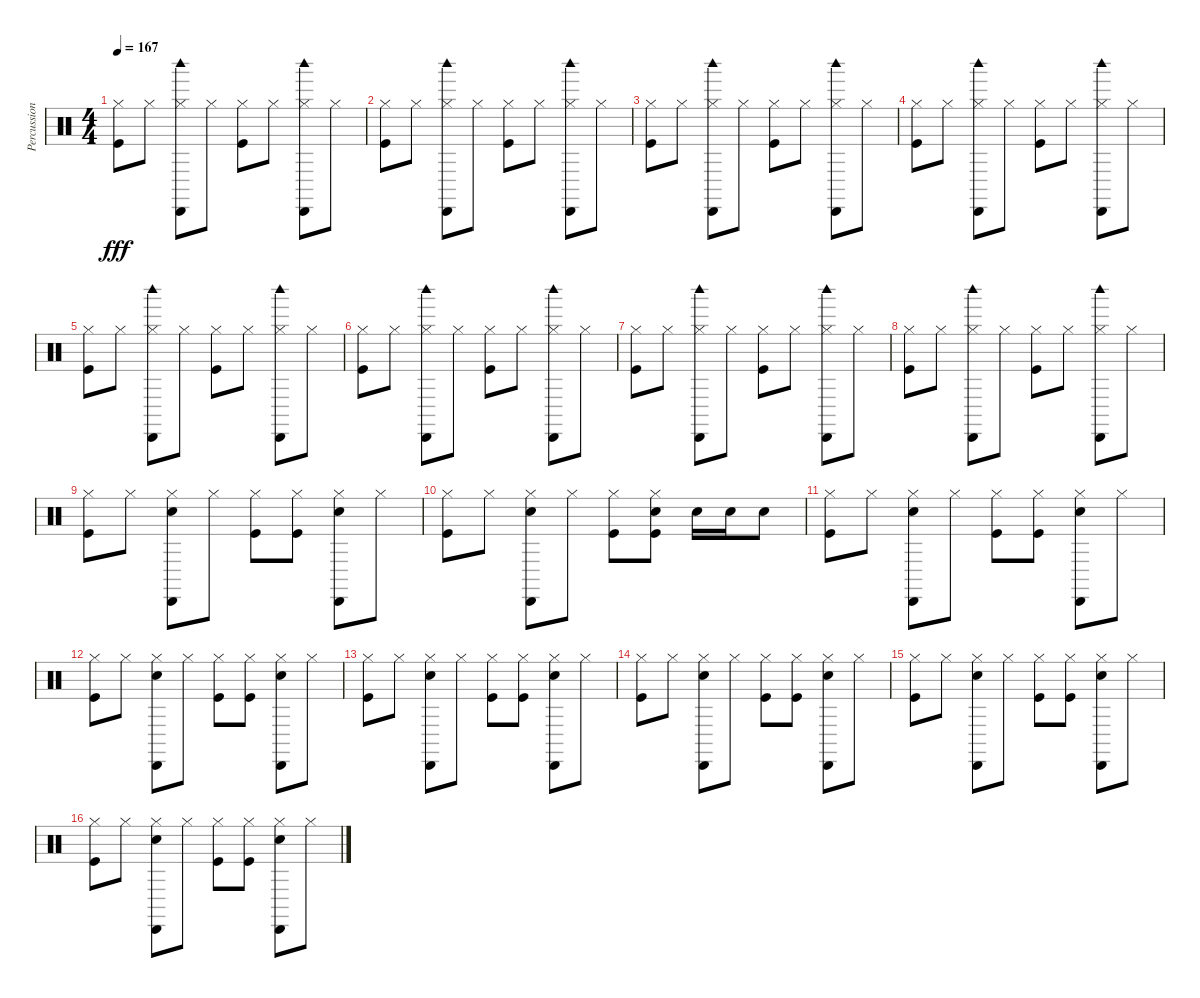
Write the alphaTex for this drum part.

\track ("Percussion" "Percussion") {instrument percussion}
\staff {score}
\articulation defaults
\ts (4 4)
\tempo 167
\clef neutral
\ks c
("Hi-Hat (closed)" "Kick (hit)").8{dy fff} "Hi-Hat (closed)".8 ("Hi-Hat (closed)" "Cabasa (hit)" "Woodblock high (hit)").8 "Hi-Hat (closed)".8 ("Hi-Hat (closed)" "Kick (hit)").8 "Hi-Hat (closed)".8 ("Hi-Hat (closed)" "Cabasa (hit)" "Woodblock high (hit)").8 "Hi-Hat (closed)".8 |
("Hi-Hat (closed)" "Kick (hit)").8 "Hi-Hat (closed)".8 ("Hi-Hat (closed)" "Cabasa (hit)" "Woodblock high (hit)").8 "Hi-Hat (closed)".8 ("Hi-Hat (closed)" "Kick (hit)").8 "Hi-Hat (closed)".8 ("Hi-Hat (closed)" "Cabasa (hit)" "Woodblock high (hit)").8 "Hi-Hat (closed)".8 |
("Hi-Hat (closed)" "Kick (hit)").8 "Hi-Hat (closed)".8 ("Hi-Hat (closed)" "Cabasa (hit)" "Woodblock high (hit)").8 "Hi-Hat (closed)".8 ("Hi-Hat (closed)" "Kick (hit)").8 "Hi-Hat (closed)".8 ("Hi-Hat (closed)" "Cabasa (hit)" "Woodblock high (hit)").8 "Hi-Hat (closed)".8 |
("Hi-Hat (closed)" "Kick (hit)").8 "Hi-Hat (closed)".8 ("Hi-Hat (closed)" "Cabasa (hit)" "Woodblock high (hit)").8 "Hi-Hat (closed)".8 ("Hi-Hat (closed)" "Kick (hit)").8 "Hi-Hat (closed)".8 ("Hi-Hat (closed)" "Cabasa (hit)" "Woodblock high (hit)").8 "Hi-Hat (closed)".8 |
("Hi-Hat (closed)" "Kick (hit)").8 "Hi-Hat (closed)".8 ("Hi-Hat (closed)" "Cabasa (hit)" "Woodblock high (hit)").8 "Hi-Hat (closed)".8 ("Hi-Hat (closed)" "Kick (hit)").8 "Hi-Hat (closed)".8 ("Hi-Hat (closed)" "Cabasa (hit)" "Woodblock high (hit)").8 "Hi-Hat (closed)".8 |
("Hi-Hat (closed)" "Kick (hit)").8 "Hi-Hat (closed)".8 ("Hi-Hat (closed)" "Cabasa (hit)" "Woodblock high (hit)").8 "Hi-Hat (closed)".8 ("Hi-Hat (closed)" "Kick (hit)").8 "Hi-Hat (closed)".8 ("Hi-Hat (closed)" "Cabasa (hit)" "Woodblock high (hit)").8 "Hi-Hat (closed)".8 |
("Hi-Hat (closed)" "Kick (hit)").8 "Hi-Hat (closed)".8 ("Hi-Hat (closed)" "Cabasa (hit)" "Woodblock high (hit)").8 "Hi-Hat (closed)".8 ("Hi-Hat (closed)" "Kick (hit)").8 "Hi-Hat (closed)".8 ("Hi-Hat (closed)" "Cabasa (hit)" "Woodblock high (hit)").8 "Hi-Hat (closed)".8 |
("Hi-Hat (closed)" "Kick (hit)").8 "Hi-Hat (closed)".8 ("Hi-Hat (closed)" "Cabasa (hit)" "Woodblock high (hit)").8 "Hi-Hat (closed)".8 ("Hi-Hat (closed)" "Kick (hit)").8 "Hi-Hat (closed)".8 ("Hi-Hat (closed)" "Cabasa (hit)" "Woodblock high (hit)").8 "Hi-Hat (closed)".8 |
("Hi-Hat (closed)" "Kick (hit)").8 "Hi-Hat (closed)".8 ("Hi-Hat (closed)" "Cabasa (hit)" "Snare (hit) 2").8 "Hi-Hat (closed)".8 ("Hi-Hat (closed)" "Kick (hit)").8 ("Hi-Hat (closed)" "Kick (hit)").8 ("Hi-Hat (closed)" "Cabasa (hit)" "Snare (hit) 2").8 "Hi-Hat (closed)".8 |
("Hi-Hat (closed)" "Kick (hit)").8 "Hi-Hat (closed)".8 ("Hi-Hat (closed)" "Cabasa (hit)" "Snare (hit) 2").8 "Hi-Hat (closed)".8 ("Hi-Hat (closed)" "Kick (hit)").8 ("Hi-Hat (closed)" "Snare (hit) 2" "Kick (hit)").8 "Snare (hit) 2".16 "Snare (hit) 2".16 "Snare (hit) 2".8 |
("Hi-Hat (closed)" "Kick (hit)").8 "Hi-Hat (closed)".8 ("Hi-Hat (closed)" "Cabasa (hit)" "Snare (hit) 2").8 "Hi-Hat (closed)".8 ("Hi-Hat (closed)" "Kick (hit)").8 ("Hi-Hat (closed)" "Kick (hit)").8 ("Hi-Hat (closed)" "Cabasa (hit)" "Snare (hit) 2").8 "Hi-Hat (closed)".8 |
("Hi-Hat (closed)" "Kick (hit)").8 "Hi-Hat (closed)".8 ("Hi-Hat (closed)" "Cabasa (hit)" "Snare (hit) 2").8 "Hi-Hat (closed)".8 ("Hi-Hat (closed)" "Kick (hit)").8 ("Hi-Hat (closed)" "Kick (hit)").8 ("Hi-Hat (closed)" "Cabasa (hit)" "Snare (hit) 2").8 "Hi-Hat (closed)".8 |
("Hi-Hat (closed)" "Kick (hit)").8 "Hi-Hat (closed)".8 ("Hi-Hat (closed)" "Cabasa (hit)" "Snare (hit) 2").8 "Hi-Hat (closed)".8 ("Hi-Hat (closed)" "Kick (hit)").8 ("Hi-Hat (closed)" "Kick (hit)").8 ("Hi-Hat (closed)" "Cabasa (hit)" "Snare (hit) 2").8 "Hi-Hat (closed)".8 |
("Hi-Hat (closed)" "Kick (hit)").8 "Hi-Hat (closed)".8 ("Hi-Hat (closed)" "Cabasa (hit)" "Snare (hit) 2").8 "Hi-Hat (closed)".8 ("Hi-Hat (closed)" "Kick (hit)").8 ("Hi-Hat (closed)" "Kick (hit)").8 ("Hi-Hat (closed)" "Cabasa (hit)" "Snare (hit) 2").8 "Hi-Hat (closed)".8 |
("Hi-Hat (closed)" "Kick (hit)").8 "Hi-Hat (closed)".8 ("Hi-Hat (closed)" "Cabasa (hit)" "Snare (hit) 2").8 "Hi-Hat (closed)".8 ("Hi-Hat (closed)" "Kick (hit)").8 ("Hi-Hat (closed)" "Kick (hit)").8 ("Hi-Hat (closed)" "Cabasa (hit)" "Snare (hit) 2").8 "Hi-Hat (closed)".8 |
("Hi-Hat (closed)" "Kick (hit)").8 "Hi-Hat (closed)".8 ("Hi-Hat (closed)" "Cabasa (hit)" "Snare (hit) 2").8 "Hi-Hat (closed)".8 ("Hi-Hat (closed)" "Kick (hit)").8 ("Hi-Hat (closed)" "Kick (hit)").8 ("Hi-Hat (closed)" "Cabasa (hit)" "Snare (hit) 2").8 "Hi-Hat (closed)".8
